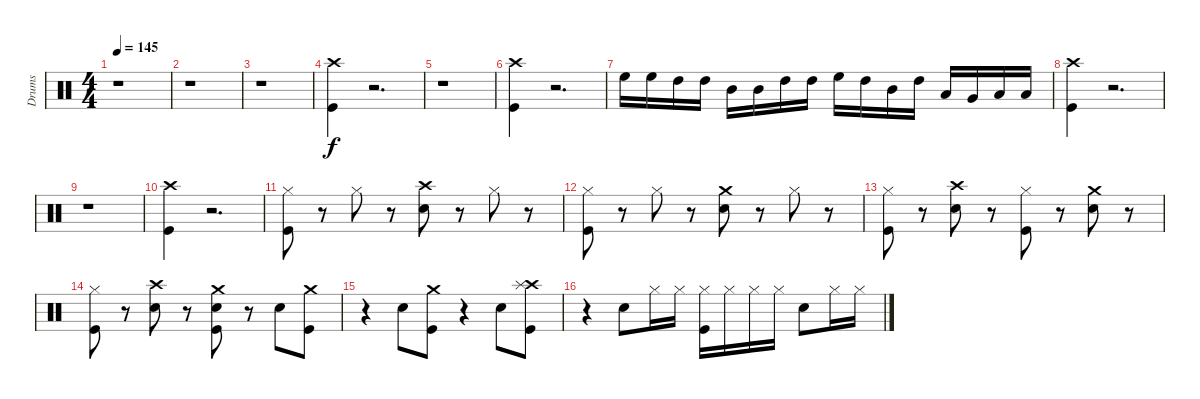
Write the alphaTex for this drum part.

\track ("Drums" "Drums") {instrument percussion}
\staff {score}
\articulation defaults
\ts (4 4)
\tempo 145
\clef neutral
\ks c
r.1{dy f} |
r.1 |
r.1 |
("Kick (hit)" "Crash high (hit)").4 r.2{d} |
r.1 |
("Kick (hit)" "Crash high (hit)").4 r.2{d} |
"High Floor Tom (hit)".16 "High Floor Tom (hit)".16 "High Tom (hit)".16 "High Tom (hit)".16 "Mid Tom (hit)".16 "Mid Tom (hit)".16 "High Tom (hit)".16 "High Tom (hit)".16 "High Floor Tom (hit)".16 "High Tom (hit)".16 "Mid Tom (hit)".16 "High Tom (hit)".16 "Low Tom (hit)".16 "Very Low Tom (hit)".16 "Low Tom (hit)".16 "Low Floor Tom (hit)".16 |
("Kick (hit)" "Crash high (hit)").4 r.2{d} |
r.1 |
("Kick (hit)" "Crash high (hit)").4 r.2{d} |
("Kick (hit)" "Hi-Hat (closed)").8 r.8 "Hi-Hat (closed)".8 r.8 ("Snare (hit) 2" "Crash high (hit)").8 r.8 "Hi-Hat (closed)".8 r.8 |
("Kick (hit)" "Hi-Hat (closed)").8 r.8 "Hi-Hat (closed)".8 r.8 ("Snare (hit) 2" "Crash medium (hit)").8 r.8 "Hi-Hat (closed)".8 r.8 |
("Kick (hit)" "Hi-Hat (closed)").8 r.8 ("Snare (hit) 2" "Crash high (hit)").8 r.8 ("Kick (hit)" "Hi-Hat (closed)").8 r.8 ("Snare (hit) 2" "Crash medium (hit)").8 r.8 |
("Kick (hit)" "Hi-Hat (closed)").8 r.8 ("Snare (hit) 2" "Crash high (hit)").8 r.8 ("Kick (hit)" "Snare (hit) 2" "Crash medium (hit)").8 r.8 "Snare (hit) 2".8 ("Kick (hit)" "Crash medium (hit)").8 |
r.4 "Snare (hit) 2".8 ("Kick (hit)" "Crash medium (hit)").8 r.4 "Snare (hit) 2".8 ("Kick (hit)" "Crash high (hit)" "Splash (hit)").8 |
r.4 "Snare (hit) 2".8 "Hi-Hat (closed)".16 "Hi-Hat (closed)".16 ("Kick (hit)" "Hi-Hat (closed)").16 "Hi-Hat (closed)".16 "Hi-Hat (closed)".16 "Hi-Hat (closed)".16 "Snare (hit) 2".8 "Hi-Hat (closed)".16 "Hi-Hat (closed)".16
